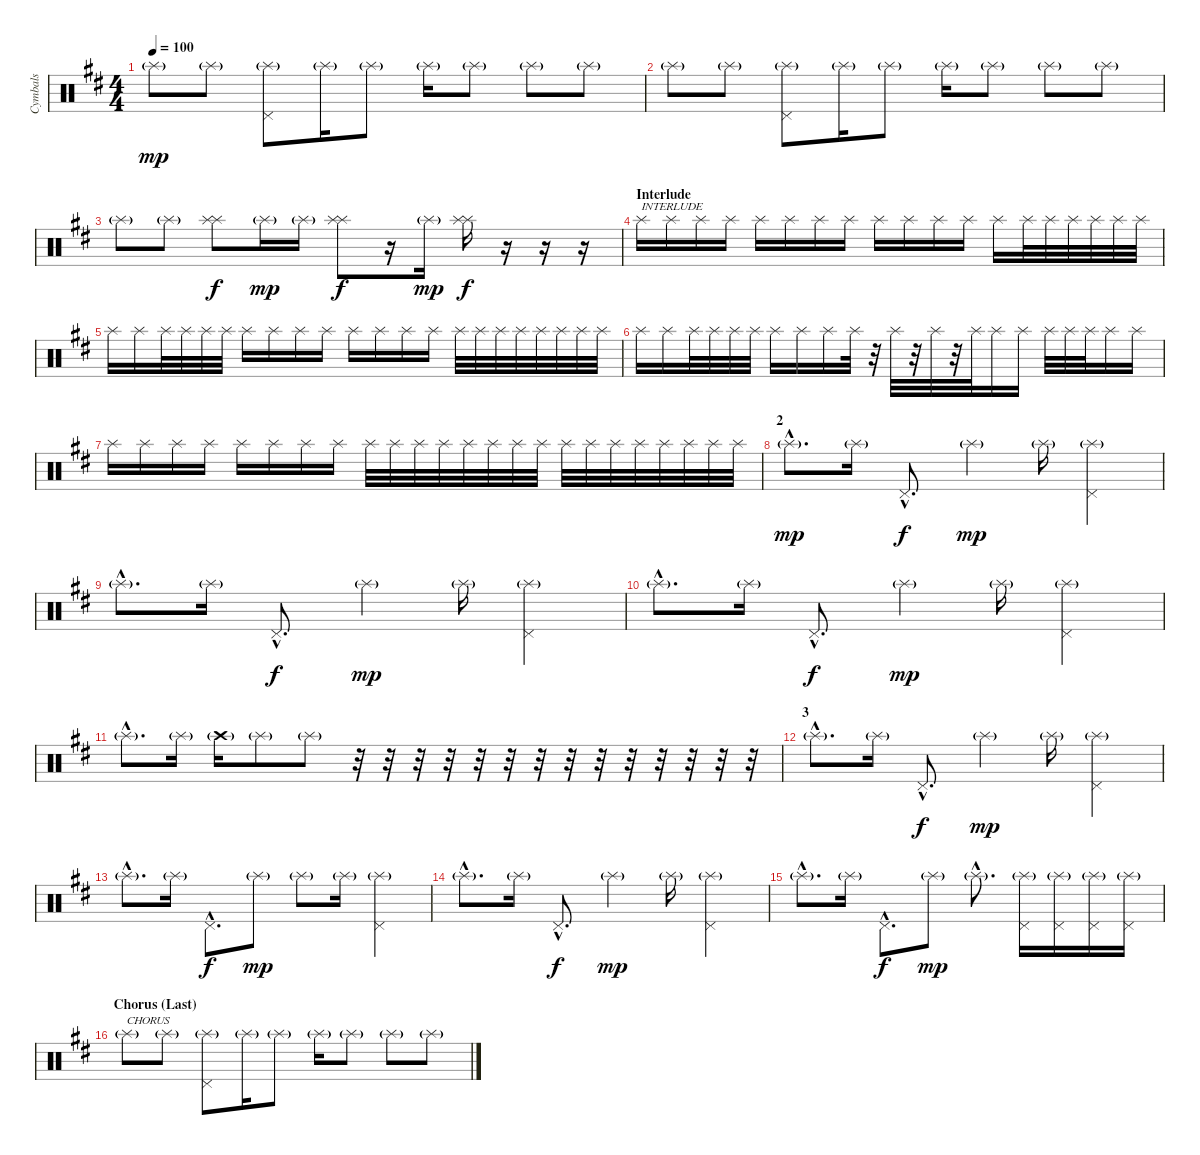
\track ("Cymbals" "Cymbals") {instrument percussion}
\staff {score}
\articulation defaults
\ts (4 4)
\tempo 100
\clef neutral
\ks d "Splash (hit)"{g}.8{dy mp} "Splash (hit)"{g}.8
("Splash (hit)"{g} "Pedal Hi-Hat (hit)").8 "Splash (hit)"{g}.16 "Splash (hit)"{g}.8 "Splash (hit)"{g}.16 "Splash (hit)"{g}.8 "Splash (hit)"{g}.8 "Splash (hit)"{g}.8 |
"Splash (hit)"{g}.8 "Splash (hit)"{g}.8 ("Splash (hit)"{g} "Pedal Hi-Hat (hit)").8 "Splash (hit)"{g}.16 "Splash (hit)"{g}.8 "Splash (hit)"{g}.16 "Splash (hit)"{g}.8 "Splash (hit)"{g}.8 "Splash (hit)"{g}.8 |
"Splash (hit)"{g}.8 "Splash (hit)"{g}.8 ("Splash (hit)" "Splash (hit)").8{dy f} "Splash (hit)"{g}.16{dy mp} "Splash (hit)"{g}.16 ("Splash (hit)" "Splash (hit)").8{dy f} r.16 "Splash (hit)"{g}.16{dy mp} ("Splash (hit)" "Splash (hit)").16{dy f} r.16 r.16 r.16 |
\section ("" "Interlude")
"Splash (hit)".16{txt "INTERLUDE" volume 7} "Splash (hit)".16 "Splash (hit)".16 "Splash (hit)".16 "Splash (hit)".16 "Splash (hit)".16 "Splash (hit)".16 "Splash (hit)".16 "Splash (hit)".16 "Splash (hit)".16 "Splash (hit)".16 "Splash (hit)".16 "Splash (hit)".16 "Splash (hit)".32 "Splash (hit)".32 "Splash (hit)".32 "Splash (hit)".32 "Splash (hit)".32 "Splash (hit)".32 |
"Splash (hit)".16 "Splash (hit)".16 "Splash (hit)".32 "Splash (hit)".32 "Splash (hit)".32 "Splash (hit)".32 "Splash (hit)".16 "Splash (hit)".16 "Splash (hit)".16 "Splash (hit)".16 "Splash (hit)".16 "Splash (hit)".16 "Splash (hit)".16 "Splash (hit)".16 "Splash (hit)".32 "Splash (hit)".32 "Splash (hit)".32 "Splash (hit)".32 "Splash (hit)".32 "Splash (hit)".32 "Splash (hit)".32 "Splash (hit)".32 |
"Splash (hit)".16{volume 9} "Splash (hit)".16 "Splash (hit)".32 "Splash (hit)".32 "Splash (hit)".32 "Splash (hit)".32 "Splash (hit)".16 "Splash (hit)".16 "Splash (hit)".16 "Splash (hit)".32 r.32 "Splash (hit)".32 r.32 "Splash (hit)".32 r.32 "Splash (hit)".32 "Splash (hit)".16 "Splash (hit)".16 "Splash (hit)".32 "Splash (hit)".32 "Splash (hit)".32 "Splash (hit)".16 "Splash (hit)".16{volume 10} |
"Splash (hit)".16{volume 11} "Splash (hit)".16 "Splash (hit)".16 "Splash (hit)".16 "Splash (hit)".16 "Splash (hit)".16 "Splash (hit)".16 "Splash (hit)".16 "Splash (hit)".32{volume 10} "Splash (hit)".32 "Splash (hit)".32 "Splash (hit)".32 "Splash (hit)".32 "Splash (hit)".32 "Splash (hit)".32 "Splash (hit)".32 "Splash (hit)".32 "Splash (hit)".32 "Splash (hit)".32 "Splash (hit)".32 "Splash (hit)".32 "Splash (hit)".32 "Splash (hit)".32 "Splash (hit)".32 |
\section ("" "2")
"Splash (hit)"{g hac}.8{d dy mp} "Splash (hit)"{g}.16 "Pedal Hi-Hat (hit)"{hac}.8{d dy f} "Splash (hit)"{g}.4{dy mp} "Splash (hit)"{g}.16 ("Pedal Hi-Hat (hit)" "Splash (hit)"{g}).4 |
"Splash (hit)"{g hac}.8{d} "Splash (hit)"{g}.16 "Pedal Hi-Hat (hit)"{hac}.8{d dy f} "Splash (hit)"{g}.4{dy mp} "Splash (hit)"{g}.16 ("Pedal Hi-Hat (hit)" "Splash (hit)"{g}).4 |
"Splash (hit)"{g hac}.8{d} "Splash (hit)"{g}.16 "Pedal Hi-Hat (hit)"{hac}.8{d dy f} "Splash (hit)"{g}.4{dy mp} "Splash (hit)"{g}.16 ("Pedal Hi-Hat (hit)" "Splash (hit)"{g}).4 |
"Splash (hit)"{g hac}.8{d} "Splash (hit)"{g}.16 "Crash high (hit)"{g}.16 "Splash (hit)"{g}.8 "Splash (hit)"{g}.8 r.32 r.32 r.32 r.32 r.32{balance 2} r.32 r.32 r.32 r.32{balance 14} r.32 r.32 r.32{balance 2} r.32 r.32{balance 14} |
\section ("" "3")
"Splash (hit)"{g hac}.8{d balance 8} "Splash (hit)"{g}.16 "Pedal Hi-Hat (hit)"{hac}.8{d dy f} "Splash (hit)"{g}.4{dy mp} "Splash (hit)"{g}.16 ("Pedal Hi-Hat (hit)" "Splash (hit)"{g}).4 |
"Splash (hit)"{g hac}.8{d} "Splash (hit)"{g}.16 "Pedal Hi-Hat (hit)"{hac}.8{d dy f} "Splash (hit)"{g}.8{dy mp} "Splash (hit)"{g}.8 "Splash (hit)"{g}.16 ("Pedal Hi-Hat (hit)" "Splash (hit)"{g}).4 |
"Splash (hit)"{g hac}.8{d} "Splash (hit)"{g}.16 "Pedal Hi-Hat (hit)"{hac}.8{d dy f} "Splash (hit)"{g}.4{dy mp} "Splash (hit)"{g}.16 ("Pedal Hi-Hat (hit)" "Splash (hit)"{g}).4 |
"Splash (hit)"{g hac}.8{d} "Splash (hit)"{g}.16 "Pedal Hi-Hat (hit)"{hac}.8{d dy f} "Splash (hit)"{g}.8{dy mp} "Splash (hit)"{g hac}.8{d} ("Pedal Hi-Hat (hit)" "Splash (hit)"{g}).16 ("Pedal Hi-Hat (hit)" "Splash (hit)"{g}).16 ("Pedal Hi-Hat (hit)" "Splash (hit)"{g}).16 ("Pedal Hi-Hat (hit)" "Splash (hit)"{g}).16 |
\section ("" "Chorus (Last)")
"Splash (hit)"{g}.8{txt "CHORUS" volume 16} "Splash (hit)"{g}.8 ("Splash (hit)"{g} "Pedal Hi-Hat (hit)").8 "Splash (hit)"{g}.16 "Splash (hit)"{g}.8 "Splash (hit)"{g}.16 "Splash (hit)"{g}.8 "Splash (hit)"{g}.8 "Splash (hit)"{g}.8
